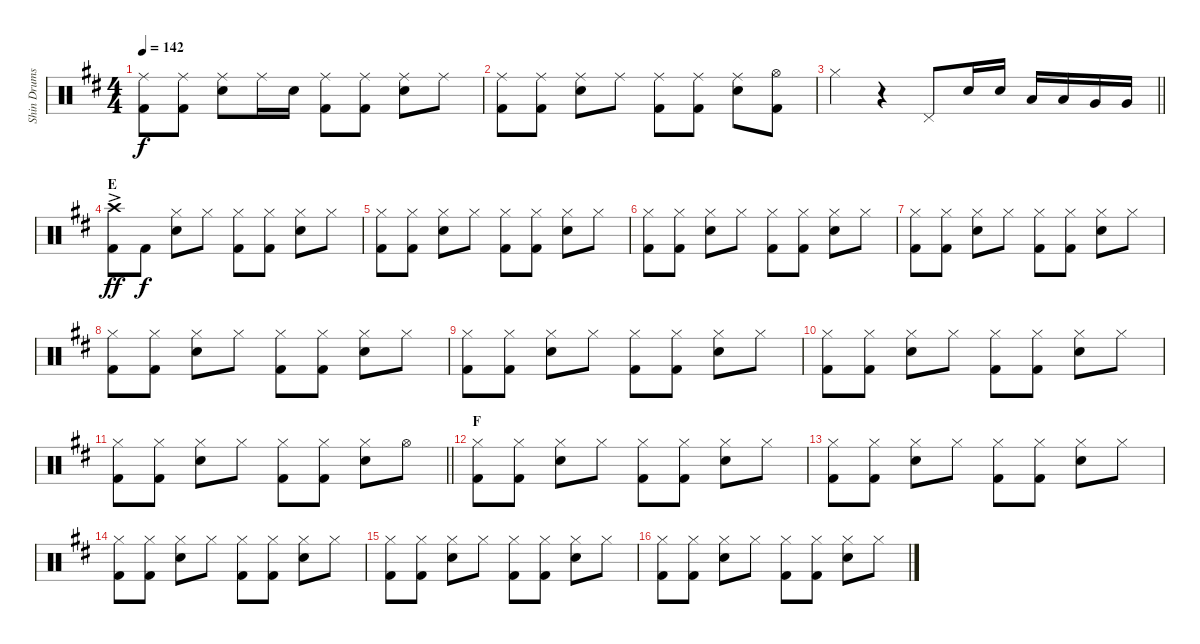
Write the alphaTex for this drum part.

\track ("Shin Drums" "Shin Drums") {instrument percussion}
\staff {score}
\articulation defaults
\ts (4 4)
\tempo 142
\clef neutral
\ks d
("Ride (middle)" "Kick (hit) 2").8{dy f} ("Ride (middle)" "Kick (hit) 2").8 ("Ride (middle)" "Snare (hit) 2").8 "Ride (middle)".16 "Snare (hit) 2".16 ("Ride (middle)" "Kick (hit) 2").8 ("Ride (middle)" "Kick (hit) 2").8 ("Ride (middle)" "Snare (hit) 2").8 "Ride (middle)".8 |
("Ride (middle)" "Kick (hit) 2").8 ("Ride (middle)" "Kick (hit) 2").8 ("Ride (middle)" "Snare (hit) 2").8 "Ride (middle)".8 ("Ride (middle)" "Kick (hit) 2").8 ("Ride (middle)" "Kick (hit) 2").8 ("Ride (middle)" "Snare (hit) 2").8 ("Hi-Hat (open)" "Kick (hit) 2").8 |
\barLineRight lightlight "Hi-Hat (closed)".4
r.4 "Pedal Hi-Hat (hit)".8 "Snare (hit) 2".16 "Snare (hit) 2".16 "Low Tom (hit)".16 "Low Tom (hit)".16 "Very Low Tom (hit)".16 "Very Low Tom (hit)".16 |
\section ("" "E")
("Crash high (hit)"{ac} "Kick (hit) 2").8{dy ff} "Kick (hit) 2".8{dy f} ("Hi-Hat (closed)" "Snare (hit) 2").8 "Hi-Hat (closed)".8 ("Hi-Hat (closed)" "Kick (hit) 2").8 ("Hi-Hat (closed)" "Kick (hit) 2").8 ("Hi-Hat (closed)" "Snare (hit) 2").8 "Hi-Hat (closed)".8 |
("Hi-Hat (closed)" "Kick (hit) 2").8 ("Hi-Hat (closed)" "Kick (hit) 2").8 ("Hi-Hat (closed)" "Snare (hit) 2").8 "Hi-Hat (closed)".8 ("Hi-Hat (closed)" "Kick (hit) 2").8 ("Hi-Hat (closed)" "Kick (hit) 2").8 ("Hi-Hat (closed)" "Snare (hit) 2").8 "Hi-Hat (closed)".8 |
("Hi-Hat (closed)" "Kick (hit) 2").8 ("Hi-Hat (closed)" "Kick (hit) 2").8 ("Hi-Hat (closed)" "Snare (hit) 2").8 "Hi-Hat (closed)".8 ("Hi-Hat (closed)" "Kick (hit) 2").8 ("Hi-Hat (closed)" "Kick (hit) 2").8 ("Hi-Hat (closed)" "Snare (hit) 2").8 "Hi-Hat (closed)".8 |
("Hi-Hat (closed)" "Kick (hit) 2").8 ("Hi-Hat (closed)" "Kick (hit) 2").8 ("Hi-Hat (closed)" "Snare (hit) 2").8 "Hi-Hat (closed)".8 ("Hi-Hat (closed)" "Kick (hit) 2").8 ("Hi-Hat (closed)" "Kick (hit) 2").8 ("Hi-Hat (closed)" "Snare (hit) 2").8 "Hi-Hat (closed)".8 |
("Hi-Hat (closed)" "Kick (hit) 2").8 ("Hi-Hat (closed)" "Kick (hit) 2").8 ("Hi-Hat (closed)" "Snare (hit) 2").8 "Hi-Hat (closed)".8 ("Hi-Hat (closed)" "Kick (hit) 2").8 ("Hi-Hat (closed)" "Kick (hit) 2").8 ("Hi-Hat (closed)" "Snare (hit) 2").8 "Hi-Hat (closed)".8 |
("Hi-Hat (closed)" "Kick (hit) 2").8 ("Hi-Hat (closed)" "Kick (hit) 2").8 ("Hi-Hat (closed)" "Snare (hit) 2").8 "Hi-Hat (closed)".8 ("Hi-Hat (closed)" "Kick (hit) 2").8 ("Hi-Hat (closed)" "Kick (hit) 2").8 ("Hi-Hat (closed)" "Snare (hit) 2").8 "Hi-Hat (closed)".8 |
("Hi-Hat (closed)" "Kick (hit) 2").8 ("Hi-Hat (closed)" "Kick (hit) 2").8 ("Hi-Hat (closed)" "Snare (hit) 2").8 "Hi-Hat (closed)".8 ("Hi-Hat (closed)" "Kick (hit) 2").8 ("Hi-Hat (closed)" "Kick (hit) 2").8 ("Hi-Hat (closed)" "Snare (hit) 2").8 "Hi-Hat (closed)".8 |
\barLineRight lightlight
("Hi-Hat (closed)" "Kick (hit) 2").8 ("Hi-Hat (closed)" "Kick (hit) 2").8 ("Hi-Hat (closed)" "Snare (hit) 2").8 "Hi-Hat (closed)".8 ("Hi-Hat (closed)" "Kick (hit) 2").8 ("Hi-Hat (closed)" "Kick (hit) 2").8 ("Hi-Hat (closed)" "Snare (hit) 2").8 "Hi-Hat (open)".8 |
\section ("" "F")
("Hi-Hat (closed)" "Kick (hit) 2").8 ("Hi-Hat (closed)" "Kick (hit) 2").8 ("Hi-Hat (closed)" "Snare (hit) 2").8 "Hi-Hat (closed)".8 ("Hi-Hat (closed)" "Kick (hit) 2").8 ("Hi-Hat (closed)" "Kick (hit) 2").8 ("Hi-Hat (closed)" "Snare (hit) 2").8 "Hi-Hat (closed)".8 |
("Hi-Hat (closed)" "Kick (hit) 2").8 ("Hi-Hat (closed)" "Kick (hit) 2").8 ("Hi-Hat (closed)" "Snare (hit) 2").8 "Hi-Hat (closed)".8 ("Hi-Hat (closed)" "Kick (hit) 2").8 ("Hi-Hat (closed)" "Kick (hit) 2").8 ("Hi-Hat (closed)" "Snare (hit) 2").8 "Hi-Hat (closed)".8 |
("Hi-Hat (closed)" "Kick (hit) 2").8 ("Hi-Hat (closed)" "Kick (hit) 2").8 ("Hi-Hat (closed)" "Snare (hit) 2").8 "Hi-Hat (closed)".8 ("Hi-Hat (closed)" "Kick (hit) 2").8 ("Hi-Hat (closed)" "Kick (hit) 2").8 ("Hi-Hat (closed)" "Snare (hit) 2").8 "Hi-Hat (closed)".8 |
("Hi-Hat (closed)" "Kick (hit) 2").8 ("Hi-Hat (closed)" "Kick (hit) 2").8 ("Hi-Hat (closed)" "Snare (hit) 2").8 "Hi-Hat (closed)".8 ("Hi-Hat (closed)" "Kick (hit) 2").8 ("Hi-Hat (closed)" "Kick (hit) 2").8 ("Hi-Hat (closed)" "Snare (hit) 2").8 "Hi-Hat (closed)".8 |
("Hi-Hat (closed)" "Kick (hit) 2").8 ("Hi-Hat (closed)" "Kick (hit) 2").8 ("Hi-Hat (closed)" "Snare (hit) 2").8 "Hi-Hat (closed)".8 ("Hi-Hat (closed)" "Kick (hit) 2").8 ("Hi-Hat (closed)" "Kick (hit) 2").8 ("Hi-Hat (closed)" "Snare (hit) 2").8 "Hi-Hat (closed)".8
